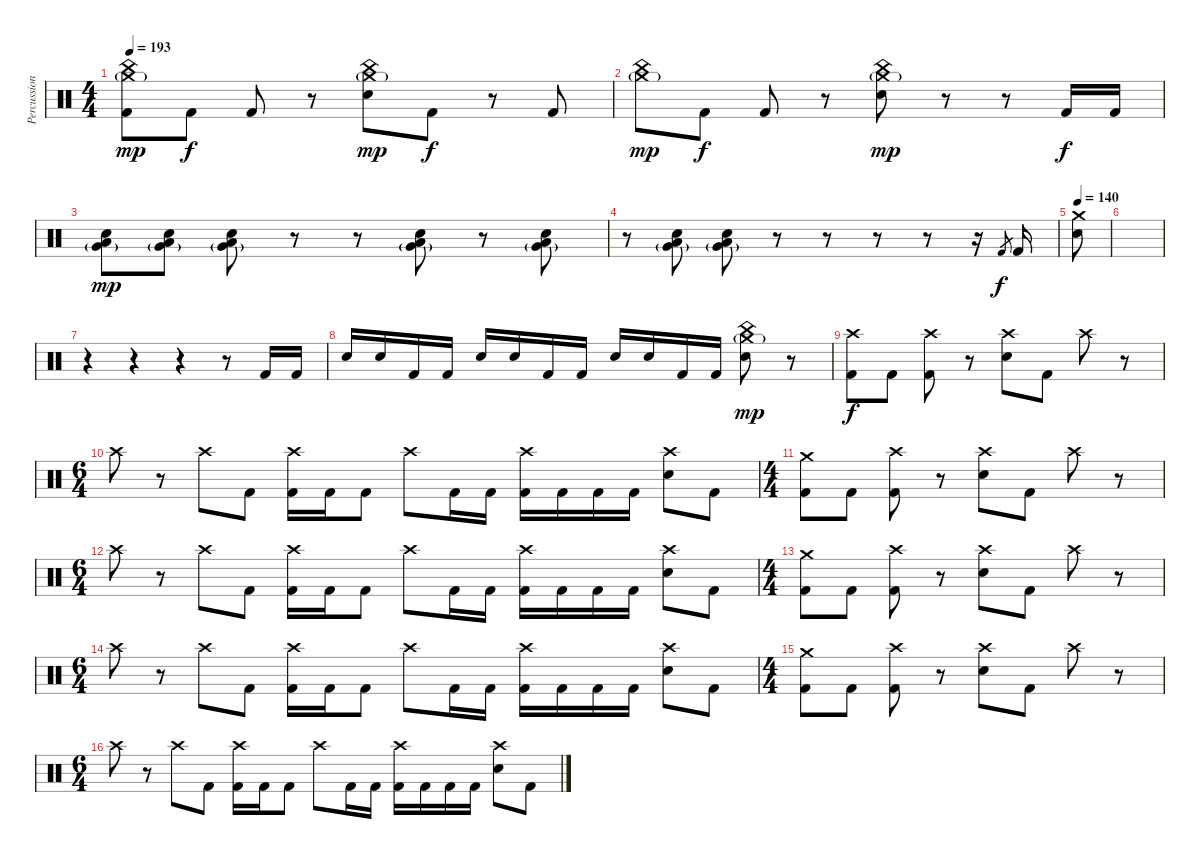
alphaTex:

\track ("Percussion" "Percussion") {instrument percussion}
\staff {score}
\articulation defaults
\ts (4 4)
\tempo 193
\clef neutral
\ks c
("Crash medium (hit)"{g} "China (hit)" "Kick (hit) 2").8{dy mp} "Kick (hit) 2".8{dy f} "Kick (hit) 2".8 r.8 ("Crash medium (hit)"{g} "China (hit)" "Snare (hit) 2").8{dy mp} "Kick (hit) 2".8{dy f} r.8 "Kick (hit) 2".8 |
("Crash medium (hit)"{g} "China (hit)").8{dy mp} "Kick (hit) 2".8{dy f} "Kick (hit) 2".8 r.8 ("Crash medium (hit)"{g} "China (hit)" "Snare (hit) 2").8{dy mp} r.8 r.8 "Kick (hit) 2".16{dy f} "Kick (hit) 2".16 |
("Very Low Tom (hit)"{g} "Low Floor Tom (hit)" "Snare (hit) 2").8{dy mp} ("Very Low Tom (hit)"{g} "Low Floor Tom (hit)" "Snare (hit) 2").8 ("Very Low Tom (hit)"{g} "Low Floor Tom (hit)" "Snare (hit) 2").8 r.8 r.8 ("Very Low Tom (hit)"{g} "Low Floor Tom (hit)" "Snare (hit) 2").8 r.8 ("Very Low Tom (hit)"{g} "Low Floor Tom (hit)" "Snare (hit) 2").8 |
r.8 ("Very Low Tom (hit)"{g} "Low Floor Tom (hit)" "Snare (hit) 2").8 ("Very Low Tom (hit)"{g} "Low Floor Tom (hit)" "Snare (hit) 2").8 r.8 r.8 r.8 r.8 r.16 "Kick (hit) 2".8{gr dy f} "Kick (hit) 2".16 |
\tempo 140
("Crash medium (hit)" "Snare (hit) 2").8 |
|
r.4 r.4 r.4 r.8 "Kick (hit) 2".16 "Kick (hit) 2".16 |
"Snare (hit) 2".16 "Snare (hit) 2".16 "Kick (hit) 2".16 "Kick (hit) 2".16 "Snare (hit) 2".16 "Snare (hit) 2".16 "Kick (hit) 2".16 "Kick (hit) 2".16 "Snare (hit) 2".16 "Snare (hit) 2".16 "Kick (hit) 2".16 "Kick (hit) 2".16 ("Crash medium (hit)"{g} "China (hit)" "Snare (hit) 2").8{dy mp} r.8 |
("Crash high (hit)" "Kick (hit) 2").8{dy f} "Kick (hit) 2".8 ("Crash high (hit)" "Kick (hit) 2").8 r.8 ("Crash high (hit)" "Snare (hit) 2").8 "Kick (hit) 2".8 "Crash high (hit)".8 r.8 |
\ts (6 4)
"Crash high (hit)".8 r.8 "Crash high (hit)".8 "Kick (hit) 2".8 ("Crash high (hit)" "Kick (hit) 2").16 "Kick (hit) 2".16 "Kick (hit) 2".8 "Crash high (hit)".8 "Kick (hit) 2".16 "Kick (hit) 2".16 ("Crash high (hit)" "Kick (hit) 2").16 "Kick (hit) 2".16 "Kick (hit) 2".16 "Kick (hit) 2".16 ("Crash high (hit)" "Snare (hit) 2").8 "Kick (hit) 2".8 |
\ts (4 4)
("Crash medium (hit)" "Kick (hit) 2").8 "Kick (hit) 2".8 ("Crash high (hit)" "Kick (hit) 2").8 r.8 ("Crash high (hit)" "Snare (hit) 2").8 "Kick (hit) 2".8 "Crash high (hit)".8 r.8 |
\ts (6 4)
"Crash high (hit)".8 r.8 "Crash high (hit)".8 "Kick (hit) 2".8 ("Crash high (hit)" "Kick (hit) 2").16 "Kick (hit) 2".16 "Kick (hit) 2".8 "Crash high (hit)".8 "Kick (hit) 2".16 "Kick (hit) 2".16 ("Crash high (hit)" "Kick (hit) 2").16 "Kick (hit) 2".16 "Kick (hit) 2".16 "Kick (hit) 2".16 ("Crash high (hit)" "Snare (hit) 2").8 "Kick (hit) 2".8 |
\ts (4 4)
("Crash medium (hit)" "Kick (hit) 2").8 "Kick (hit) 2".8 ("Crash high (hit)" "Kick (hit) 2").8 r.8 ("Crash high (hit)" "Snare (hit) 2").8 "Kick (hit) 2".8 "Crash high (hit)".8 r.8 |
\ts (6 4)
"Crash high (hit)".8 r.8 "Crash high (hit)".8 "Kick (hit) 2".8 ("Crash high (hit)" "Kick (hit) 2").16 "Kick (hit) 2".16 "Kick (hit) 2".8 "Crash high (hit)".8 "Kick (hit) 2".16 "Kick (hit) 2".16 ("Crash high (hit)" "Kick (hit) 2").16 "Kick (hit) 2".16 "Kick (hit) 2".16 "Kick (hit) 2".16 ("Crash high (hit)" "Snare (hit) 2").8 "Kick (hit) 2".8 |
\ts (4 4)
("Crash medium (hit)" "Kick (hit) 2").8 "Kick (hit) 2".8 ("Crash high (hit)" "Kick (hit) 2").8 r.8 ("Crash high (hit)" "Snare (hit) 2").8 "Kick (hit) 2".8 "Crash high (hit)".8 r.8 |
\ts (6 4)
"Crash high (hit)".8 r.8 "Crash high (hit)".8 "Kick (hit) 2".8 ("Crash high (hit)" "Kick (hit) 2").16 "Kick (hit) 2".16 "Kick (hit) 2".8 "Crash high (hit)".8 "Kick (hit) 2".16 "Kick (hit) 2".16 ("Crash high (hit)" "Kick (hit) 2").16 "Kick (hit) 2".16 "Kick (hit) 2".16 "Kick (hit) 2".16 ("Crash high (hit)" "Snare (hit) 2").8 "Kick (hit) 2".8
